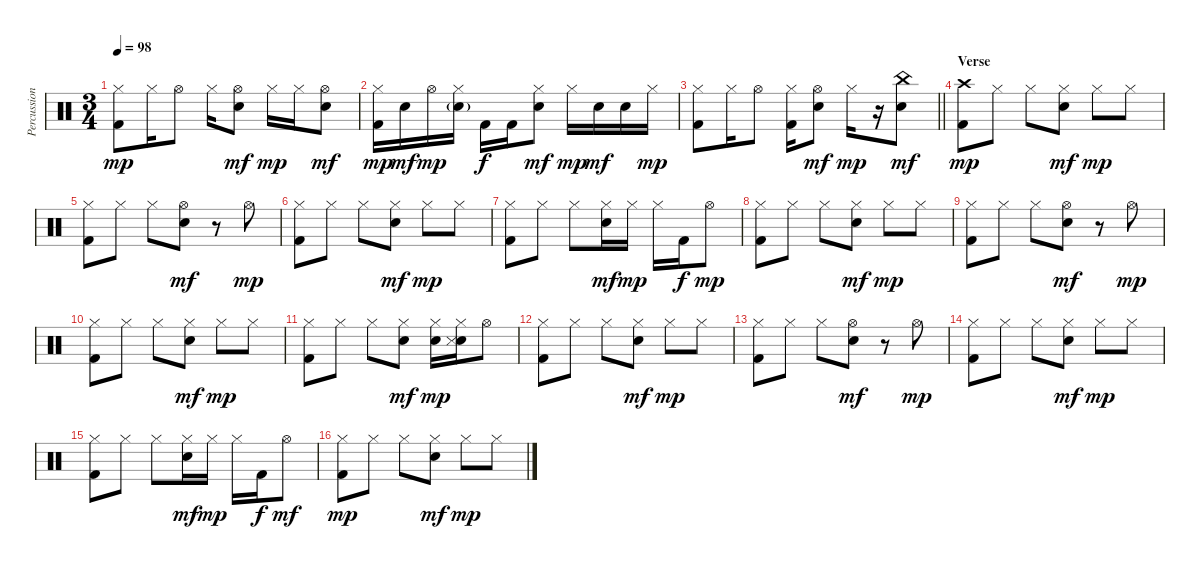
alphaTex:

\track ("Percussion" "Percussion") {instrument percussion}
\staff {score}
\articulation defaults
\ts (3 4)
\tempo 98
\clef neutral
\ks c
("Hi-Hat (closed)" "Kick (hit) 2").8{dy mp} "Hi-Hat (closed)".16 "Hi-Hat (open)".8 "Hi-Hat (closed)".16 ("Hi-Hat (open)" "Electric Snare (hit)").8{dy mf} "Hi-Hat (closed)".16{dy mp} "Hi-Hat (closed)".16 ("Hi-Hat (open)" "Electric Snare (hit)").8{dy mf} |
("Hi-Hat (closed)" "Kick (hit) 2").16{dy mp} "Electric Snare (hit)".16{dy mf} "Hi-Hat (open)".16{dy mp} ("Hi-Hat (closed)" "Electric Snare (hit)"{g}).16 "Kick (hit) 2".16{dy f} "Kick (hit) 2".16 ("Hi-Hat (closed)" "Electric Snare (hit)").8{dy mf} "Hi-Hat (closed)".16{dy mp} "Electric Snare (hit)".16{dy mf} "Electric Snare (hit)".16 "Hi-Hat (closed)".16{dy mp} |
\barLineRight lightlight
("Hi-Hat (closed)" "Kick (hit) 2").8 "Hi-Hat (closed)".16 "Hi-Hat (open)".8 ("Hi-Hat (closed)" "Kick (hit) 2").16 ("Hi-Hat (open)" "Electric Snare (hit)").8{dy mf} "Hi-Hat (closed)".16{dy mp} r.16 ("China (hit)" "Electric Snare (hit)").8{dy mf} |
\section ("" "Verse")
("Crash high (hit)" "Kick (hit) 2").8{dy mp} "Hi-Hat (closed)".8 "Hi-Hat (closed)".8 ("Hi-Hat (closed)" "Electric Snare (hit)").8{dy mf} "Hi-Hat (closed)".8{dy mp} "Hi-Hat (closed)".8 |
("Hi-Hat (closed)" "Kick (hit) 2").8 "Hi-Hat (closed)".8 "Hi-Hat (closed)".8 ("Hi-Hat (open)" "Electric Snare (hit)").8{dy mf} r.8 "Hi-Hat (open)".8{dy mp} |
("Hi-Hat (closed)" "Kick (hit) 2").8 "Hi-Hat (closed)".8 "Hi-Hat (closed)".8 ("Hi-Hat (closed)" "Electric Snare (hit)").8{dy mf} "Hi-Hat (closed)".8{dy mp} "Hi-Hat (closed)".8 |
("Hi-Hat (closed)" "Kick (hit) 2").8 "Hi-Hat (closed)".8 "Hi-Hat (closed)".8 ("Hi-Hat (closed)" "Electric Snare (hit)").16{dy mf} "Hi-Hat (closed)".16{dy mp} "Hi-Hat (closed)".16 "Kick (hit) 2".16{dy f} "Hi-Hat (open)".8{dy mp} |
("Hi-Hat (closed)" "Kick (hit) 2").8 "Hi-Hat (closed)".8 "Hi-Hat (closed)".8 ("Hi-Hat (closed)" "Electric Snare (hit)").8{dy mf} "Hi-Hat (closed)".8{dy mp} "Hi-Hat (closed)".8 |
("Hi-Hat (closed)" "Kick (hit) 2").8 "Hi-Hat (closed)".8 "Hi-Hat (closed)".8 ("Hi-Hat (open)" "Electric Snare (hit)").8{dy mf} r.8 "Hi-Hat (open)".8{dy mp} |
("Hi-Hat (closed)" "Kick (hit) 2").8 "Hi-Hat (closed)".8 "Hi-Hat (closed)".8 ("Hi-Hat (closed)" "Electric Snare (hit)").8{dy mf} "Hi-Hat (closed)".8{dy mp} "Hi-Hat (closed)".8 |
("Hi-Hat (closed)" "Kick (hit) 2").8 "Hi-Hat (closed)".8 "Hi-Hat (closed)".8 ("Hi-Hat (closed)" "Electric Snare (hit)").8{dy mf} ("Hi-Hat (closed)" "Electric Snare (hit)").16{dy mp} ("Hi-Hat (closed)" "Electric Snare (hit)" "Snare (side stick) 3").16 "Hi-Hat (open)".8 |
("Hi-Hat (closed)" "Kick (hit) 2").8 "Hi-Hat (closed)".8 "Hi-Hat (closed)".8 ("Hi-Hat (closed)" "Electric Snare (hit)").8{dy mf} "Hi-Hat (closed)".8{dy mp} "Hi-Hat (closed)".8 |
("Hi-Hat (closed)" "Kick (hit) 2").8 "Hi-Hat (closed)".8 "Hi-Hat (closed)".8 ("Hi-Hat (open)" "Electric Snare (hit)").8{dy mf} r.8 "Hi-Hat (open)".8{dy mp} |
("Hi-Hat (closed)" "Kick (hit) 2").8 "Hi-Hat (closed)".8 "Hi-Hat (closed)".8 ("Hi-Hat (closed)" "Electric Snare (hit)").8{dy mf} "Hi-Hat (closed)".8{dy mp} "Hi-Hat (closed)".8 |
("Hi-Hat (closed)" "Kick (hit) 2").8 "Hi-Hat (closed)".8 "Hi-Hat (closed)".8 ("Hi-Hat (closed)" "Electric Snare (hit)").16{dy mf} "Hi-Hat (closed)".16{dy mp} "Hi-Hat (closed)".16 "Kick (hit) 2".16{dy f} "Hi-Hat (open)".8{dy mf} |
("Hi-Hat (closed)" "Kick (hit) 2").8{dy mp} "Hi-Hat (closed)".8 "Hi-Hat (closed)".8 ("Hi-Hat (closed)" "Electric Snare (hit)").8{dy mf} "Hi-Hat (closed)".8{dy mp} "Hi-Hat (closed)".8
